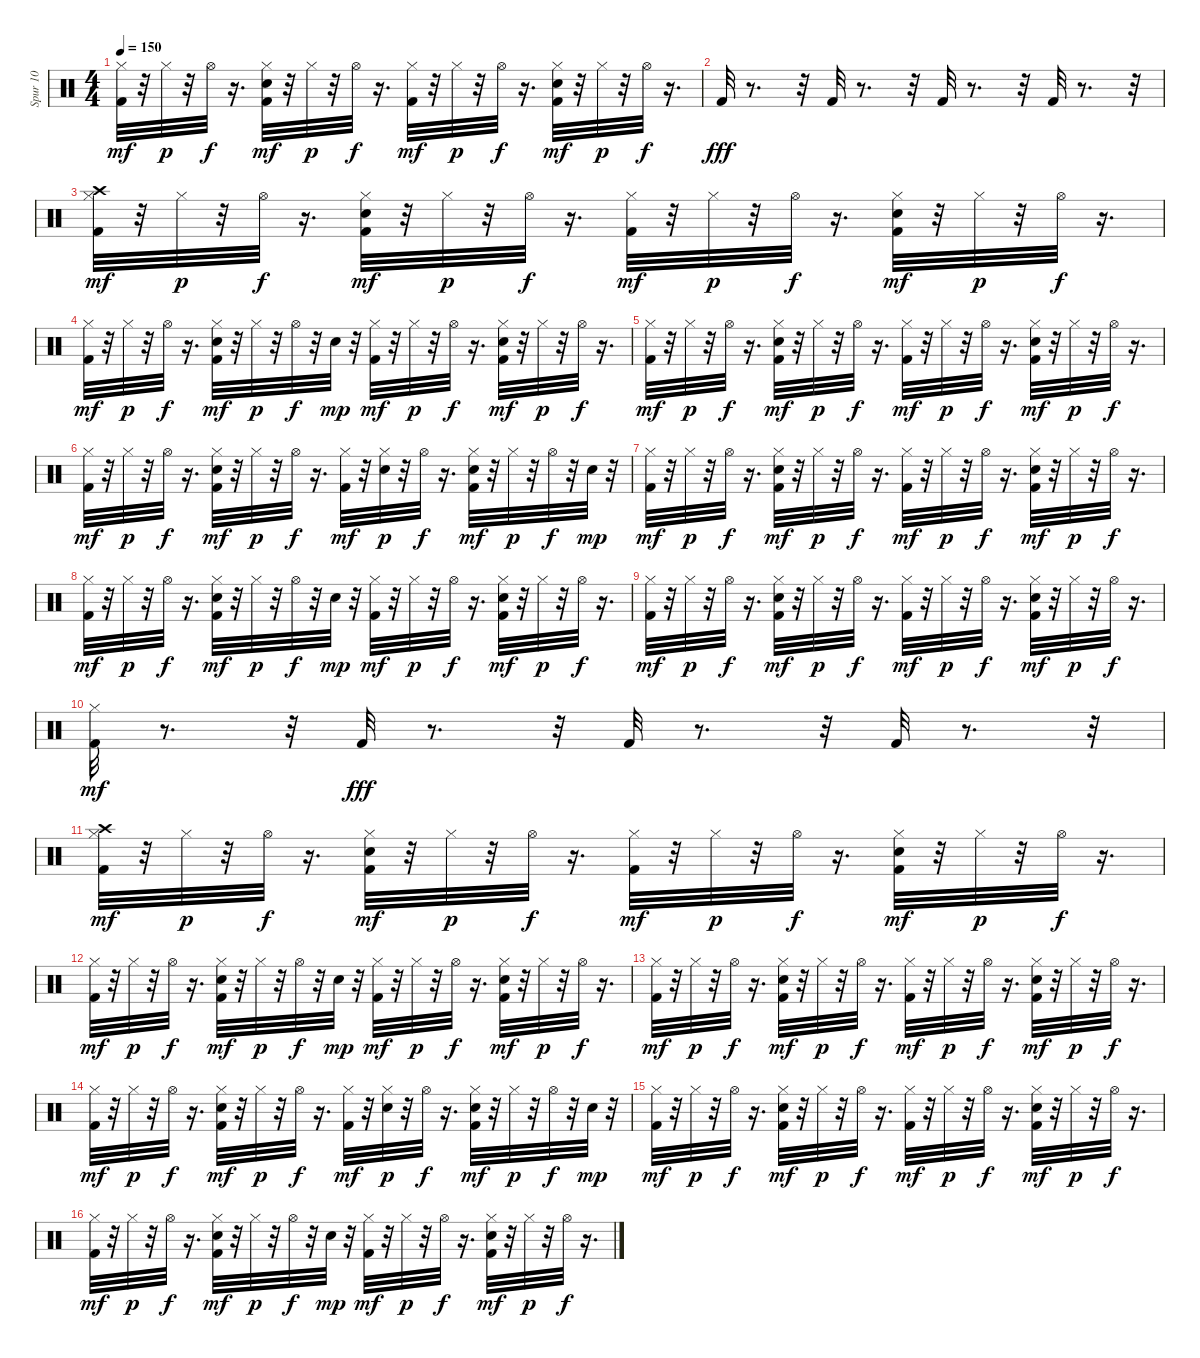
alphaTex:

\track ("Spur 10" "Spur 10") {instrument percussion}
\staff {score}
\articulation defaults
\ts (4 4)
\tempo 150
\clef neutral
\ks c
("Kick (hit) 2" "Hi-Hat (closed)").32{dy mf} r.32 "Hi-Hat (closed)".32{dy p} r.32 "Hi-Hat (open)".32{dy f} r.16{d} ("Kick (hit) 2" "Snare (hit) 2" "Hi-Hat (closed)").32{dy mf} r.32 "Hi-Hat (closed)".32{dy p} r.32 "Hi-Hat (open)".32{dy f} r.16{d} ("Kick (hit) 2" "Hi-Hat (closed)").32{dy mf} r.32 "Hi-Hat (closed)".32{dy p} r.32 "Hi-Hat (open)".32{dy f} r.16{d} ("Kick (hit) 2" "Snare (hit) 2" "Hi-Hat (closed)").32{dy mf} r.32 "Hi-Hat (closed)".32{dy p} r.32 "Hi-Hat (open)".32{dy f} r.16{d} |
"Kick (hit) 2".32{dy fff} r.8{d} r.32 "Kick (hit) 2".32 r.8{d} r.32 "Kick (hit) 2".32 r.8{d} r.32 "Kick (hit) 2".32 r.8{d} r.32 |
("Crash high (hit)" "Kick (hit) 2" "Hi-Hat (closed)").32{dy mf} r.32 "Hi-Hat (closed)".32{dy p} r.32 "Hi-Hat (open)".32{dy f} r.16{d} ("Kick (hit) 2" "Snare (hit) 2" "Hi-Hat (closed)").32{dy mf} r.32 "Hi-Hat (closed)".32{dy p} r.32 "Hi-Hat (open)".32{dy f} r.16{d} ("Kick (hit) 2" "Hi-Hat (closed)").32{dy mf} r.32 "Hi-Hat (closed)".32{dy p} r.32 "Hi-Hat (open)".32{dy f} r.16{d} ("Kick (hit) 2" "Snare (hit) 2" "Hi-Hat (closed)").32{dy mf} r.32 "Hi-Hat (closed)".32{dy p} r.32 "Hi-Hat (open)".32{dy f} r.16{d} |
("Kick (hit) 2" "Hi-Hat (closed)").32{dy mf} r.32 "Hi-Hat (closed)".32{dy p} r.32 "Hi-Hat (open)".32{dy f} r.16{d} ("Kick (hit) 2" "Snare (hit) 2" "Hi-Hat (closed)").32{dy mf} r.32 "Hi-Hat (closed)".32{dy p} r.32 "Hi-Hat (open)".32{dy f} r.32 "Snare (hit) 2".32{dy mp} r.32 ("Kick (hit) 2" "Hi-Hat (closed)").32{dy mf} r.32 "Hi-Hat (closed)".32{dy p} r.32 "Hi-Hat (open)".32{dy f} r.16{d} ("Kick (hit) 2" "Snare (hit) 2" "Hi-Hat (closed)").32{dy mf} r.32 "Hi-Hat (closed)".32{dy p} r.32 "Hi-Hat (open)".32{dy f} r.16{d} |
("Kick (hit) 2" "Hi-Hat (closed)").32{dy mf} r.32 "Hi-Hat (closed)".32{dy p} r.32 "Hi-Hat (open)".32{dy f} r.16{d} ("Kick (hit) 2" "Snare (hit) 2" "Hi-Hat (closed)").32{dy mf} r.32 "Hi-Hat (closed)".32{dy p} r.32 "Hi-Hat (open)".32{dy f} r.16{d} ("Kick (hit) 2" "Hi-Hat (closed)").32{dy mf} r.32 "Hi-Hat (closed)".32{dy p} r.32 "Hi-Hat (open)".32{dy f} r.16{d} ("Kick (hit) 2" "Snare (hit) 2" "Hi-Hat (closed)").32{dy mf} r.32 "Hi-Hat (closed)".32{dy p} r.32 "Hi-Hat (open)".32{dy f} r.16{d} |
("Kick (hit) 2" "Hi-Hat (closed)").32{dy mf} r.32 "Hi-Hat (closed)".32{dy p} r.32 "Hi-Hat (open)".32{dy f} r.16{d} ("Kick (hit) 2" "Snare (hit) 2" "Hi-Hat (closed)").32{dy mf} r.32 "Hi-Hat (closed)".32{dy p} r.32 "Hi-Hat (open)".32{dy f} r.16{d} ("Kick (hit) 2" "Hi-Hat (closed)").32{dy mf} r.32 ("Snare (hit) 2" "Hi-Hat (closed)").32{dy p} r.32 "Hi-Hat (open)".32{dy f} r.16{d} ("Kick (hit) 2" "Snare (hit) 2" "Hi-Hat (closed)").32{dy mf} r.32 "Hi-Hat (closed)".32{dy p} r.32 "Hi-Hat (open)".32{dy f} r.32 "Snare (hit) 2".32{dy mp} r.32 |
("Kick (hit) 2" "Hi-Hat (closed)").32{dy mf} r.32 "Hi-Hat (closed)".32{dy p} r.32 "Hi-Hat (open)".32{dy f} r.16{d} ("Kick (hit) 2" "Snare (hit) 2" "Hi-Hat (closed)").32{dy mf} r.32 "Hi-Hat (closed)".32{dy p} r.32 "Hi-Hat (open)".32{dy f} r.16{d} ("Kick (hit) 2" "Hi-Hat (closed)").32{dy mf} r.32 "Hi-Hat (closed)".32{dy p} r.32 "Hi-Hat (open)".32{dy f} r.16{d} ("Kick (hit) 2" "Snare (hit) 2" "Hi-Hat (closed)").32{dy mf} r.32 "Hi-Hat (closed)".32{dy p} r.32 "Hi-Hat (open)".32{dy f} r.16{d} |
("Kick (hit) 2" "Hi-Hat (closed)").32{dy mf} r.32 "Hi-Hat (closed)".32{dy p} r.32 "Hi-Hat (open)".32{dy f} r.16{d} ("Kick (hit) 2" "Snare (hit) 2" "Hi-Hat (closed)").32{dy mf} r.32 "Hi-Hat (closed)".32{dy p} r.32 "Hi-Hat (open)".32{dy f} r.32 "Snare (hit) 2".32{dy mp} r.32 ("Kick (hit) 2" "Hi-Hat (closed)").32{dy mf} r.32 "Hi-Hat (closed)".32{dy p} r.32 "Hi-Hat (open)".32{dy f} r.16{d} ("Kick (hit) 2" "Snare (hit) 2" "Hi-Hat (closed)").32{dy mf} r.32 "Hi-Hat (closed)".32{dy p} r.32 "Hi-Hat (open)".32{dy f} r.16{d} |
("Kick (hit) 2" "Hi-Hat (closed)").32{dy mf} r.32 "Hi-Hat (closed)".32{dy p} r.32 "Hi-Hat (open)".32{dy f} r.16{d} ("Kick (hit) 2" "Snare (hit) 2" "Hi-Hat (closed)").32{dy mf} r.32 "Hi-Hat (closed)".32{dy p} r.32 "Hi-Hat (open)".32{dy f} r.16{d} ("Kick (hit) 2" "Hi-Hat (closed)").32{dy mf} r.32 "Hi-Hat (closed)".32{dy p} r.32 "Hi-Hat (open)".32{dy f} r.16{d} ("Kick (hit) 2" "Snare (hit) 2" "Hi-Hat (closed)").32{dy mf} r.32 "Hi-Hat (closed)".32{dy p} r.32 "Hi-Hat (open)".32{dy f} r.16{d} |
("Kick (hit) 2" "Hi-Hat (closed)").32{dy mf} r.8{d} r.32 "Kick (hit) 2".32{dy fff} r.8{d} r.32 "Kick (hit) 2".32 r.8{d} r.32 "Kick (hit) 2".32 r.8{d} r.32 |
("Crash high (hit)" "Kick (hit) 2" "Hi-Hat (closed)").32{dy mf} r.32 "Hi-Hat (closed)".32{dy p} r.32 "Hi-Hat (open)".32{dy f} r.16{d} ("Kick (hit) 2" "Snare (hit) 2" "Hi-Hat (closed)").32{dy mf} r.32 "Hi-Hat (closed)".32{dy p} r.32 "Hi-Hat (open)".32{dy f} r.16{d} ("Kick (hit) 2" "Hi-Hat (closed)").32{dy mf} r.32 "Hi-Hat (closed)".32{dy p} r.32 "Hi-Hat (open)".32{dy f} r.16{d} ("Kick (hit) 2" "Snare (hit) 2" "Hi-Hat (closed)").32{dy mf} r.32 "Hi-Hat (closed)".32{dy p} r.32 "Hi-Hat (open)".32{dy f} r.16{d} |
("Kick (hit) 2" "Hi-Hat (closed)").32{dy mf} r.32 "Hi-Hat (closed)".32{dy p} r.32 "Hi-Hat (open)".32{dy f} r.16{d} ("Kick (hit) 2" "Snare (hit) 2" "Hi-Hat (closed)").32{dy mf} r.32 "Hi-Hat (closed)".32{dy p} r.32 "Hi-Hat (open)".32{dy f} r.32 "Snare (hit) 2".32{dy mp} r.32 ("Kick (hit) 2" "Hi-Hat (closed)").32{dy mf} r.32 "Hi-Hat (closed)".32{dy p} r.32 "Hi-Hat (open)".32{dy f} r.16{d} ("Kick (hit) 2" "Snare (hit) 2" "Hi-Hat (closed)").32{dy mf} r.32 "Hi-Hat (closed)".32{dy p} r.32 "Hi-Hat (open)".32{dy f} r.16{d} |
("Kick (hit) 2" "Hi-Hat (closed)").32{dy mf} r.32 "Hi-Hat (closed)".32{dy p} r.32 "Hi-Hat (open)".32{dy f} r.16{d} ("Kick (hit) 2" "Snare (hit) 2" "Hi-Hat (closed)").32{dy mf} r.32 "Hi-Hat (closed)".32{dy p} r.32 "Hi-Hat (open)".32{dy f} r.16{d} ("Kick (hit) 2" "Hi-Hat (closed)").32{dy mf} r.32 "Hi-Hat (closed)".32{dy p} r.32 "Hi-Hat (open)".32{dy f} r.16{d} ("Kick (hit) 2" "Snare (hit) 2" "Hi-Hat (closed)").32{dy mf} r.32 "Hi-Hat (closed)".32{dy p} r.32 "Hi-Hat (open)".32{dy f} r.16{d} |
("Kick (hit) 2" "Hi-Hat (closed)").32{dy mf} r.32 "Hi-Hat (closed)".32{dy p} r.32 "Hi-Hat (open)".32{dy f} r.16{d} ("Kick (hit) 2" "Snare (hit) 2" "Hi-Hat (closed)").32{dy mf} r.32 "Hi-Hat (closed)".32{dy p} r.32 "Hi-Hat (open)".32{dy f} r.16{d} ("Kick (hit) 2" "Hi-Hat (closed)").32{dy mf} r.32 ("Snare (hit) 2" "Hi-Hat (closed)").32{dy p} r.32 "Hi-Hat (open)".32{dy f} r.16{d} ("Kick (hit) 2" "Snare (hit) 2" "Hi-Hat (closed)").32{dy mf} r.32 "Hi-Hat (closed)".32{dy p} r.32 "Hi-Hat (open)".32{dy f} r.32 "Snare (hit) 2".32{dy mp} r.32 |
("Kick (hit) 2" "Hi-Hat (closed)").32{dy mf} r.32 "Hi-Hat (closed)".32{dy p} r.32 "Hi-Hat (open)".32{dy f} r.16{d} ("Kick (hit) 2" "Snare (hit) 2" "Hi-Hat (closed)").32{dy mf} r.32 "Hi-Hat (closed)".32{dy p} r.32 "Hi-Hat (open)".32{dy f} r.16{d} ("Kick (hit) 2" "Hi-Hat (closed)").32{dy mf} r.32 "Hi-Hat (closed)".32{dy p} r.32 "Hi-Hat (open)".32{dy f} r.16{d} ("Kick (hit) 2" "Snare (hit) 2" "Hi-Hat (closed)").32{dy mf} r.32 "Hi-Hat (closed)".32{dy p} r.32 "Hi-Hat (open)".32{dy f} r.16{d} |
("Kick (hit) 2" "Hi-Hat (closed)").32{dy mf} r.32 "Hi-Hat (closed)".32{dy p} r.32 "Hi-Hat (open)".32{dy f} r.16{d} ("Kick (hit) 2" "Snare (hit) 2" "Hi-Hat (closed)").32{dy mf} r.32 "Hi-Hat (closed)".32{dy p} r.32 "Hi-Hat (open)".32{dy f} r.32 "Snare (hit) 2".32{dy mp} r.32 ("Kick (hit) 2" "Hi-Hat (closed)").32{dy mf} r.32 "Hi-Hat (closed)".32{dy p} r.32 "Hi-Hat (open)".32{dy f} r.16{d} ("Kick (hit) 2" "Snare (hit) 2" "Hi-Hat (closed)").32{dy mf} r.32 "Hi-Hat (closed)".32{dy p} r.32 "Hi-Hat (open)".32{dy f} r.16{d}
